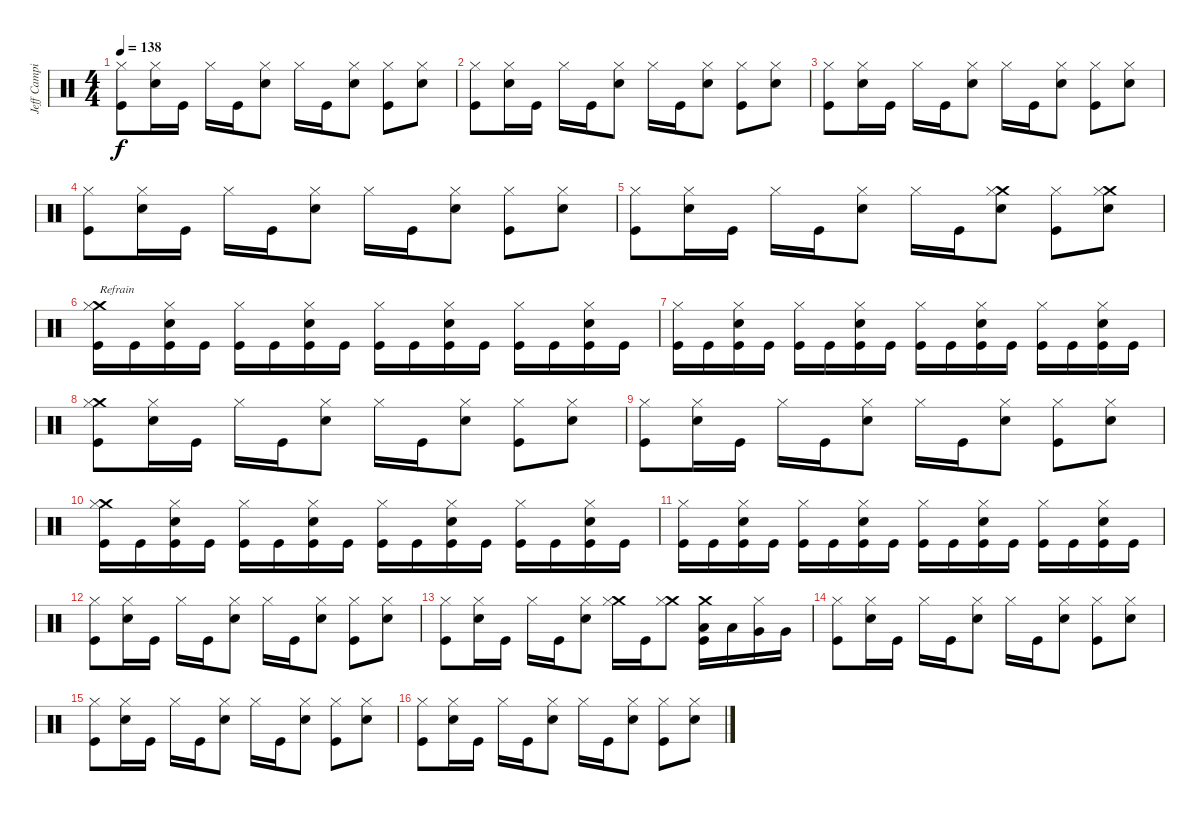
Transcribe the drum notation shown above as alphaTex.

\track ("Jeff Campitelli" "Jeff Campi") {instrument percussion}
\staff {score}
\articulation defaults
\ts (4 4)
\tempo 138
\clef neutral
\ks c
("Hi-Hat (closed)" "Kick (hit)").8{dy f} ("Electric Snare (hit)" "Hi-Hat (closed)").16 "Kick (hit)".16 "Hi-Hat (closed)".16 "Kick (hit)".16 ("Electric Snare (hit)" "Hi-Hat (closed)").8 "Hi-Hat (closed)".16 "Kick (hit)".16 ("Electric Snare (hit)" "Hi-Hat (closed)").8 ("Hi-Hat (closed)" "Kick (hit)").8 ("Electric Snare (hit)" "Hi-Hat (closed)").8 |
("Hi-Hat (closed)" "Kick (hit)").8 ("Electric Snare (hit)" "Hi-Hat (closed)").16 "Kick (hit)".16 "Hi-Hat (closed)".16 "Kick (hit)".16 ("Electric Snare (hit)" "Hi-Hat (closed)").8 "Hi-Hat (closed)".16 "Kick (hit)".16 ("Electric Snare (hit)" "Hi-Hat (closed)").8 ("Hi-Hat (closed)" "Kick (hit)").8 ("Electric Snare (hit)" "Hi-Hat (closed)").8 |
("Hi-Hat (closed)" "Kick (hit)").8 ("Electric Snare (hit)" "Hi-Hat (closed)").16 "Kick (hit)".16 "Hi-Hat (closed)".16 "Kick (hit)".16 ("Electric Snare (hit)" "Hi-Hat (closed)").8 "Hi-Hat (closed)".16 "Kick (hit)".16 ("Electric Snare (hit)" "Hi-Hat (closed)").8 ("Hi-Hat (closed)" "Kick (hit)").8 ("Electric Snare (hit)" "Hi-Hat (closed)").8 |
("Hi-Hat (closed)" "Kick (hit)").8 ("Electric Snare (hit)" "Hi-Hat (closed)").16 "Kick (hit)".16 "Hi-Hat (closed)".16 "Kick (hit)".16 ("Electric Snare (hit)" "Hi-Hat (closed)").8 "Hi-Hat (closed)".16 "Kick (hit)".16 ("Electric Snare (hit)" "Hi-Hat (closed)").8 ("Hi-Hat (closed)" "Kick (hit)").8 ("Electric Snare (hit)" "Hi-Hat (closed)").8 |
("Hi-Hat (closed)" "Kick (hit)").8 ("Electric Snare (hit)" "Hi-Hat (closed)").16 "Kick (hit)".16 "Hi-Hat (closed)".16 "Kick (hit)".16 ("Electric Snare (hit)" "Hi-Hat (closed)").8 "Hi-Hat (closed)".16 "Kick (hit)".16 ("Crash medium (hit)" "Electric Snare (hit)" "Hi-Hat (closed)").8 ("Hi-Hat (closed)" "Kick (hit)").8 ("Crash medium (hit)" "Electric Snare (hit)" "Hi-Hat (closed)").8 |
("Crash medium (hit)" "Hi-Hat (closed)" "Kick (hit)").16{txt "Refrain"} "Kick (hit)".16 ("Electric Snare (hit)" "Hi-Hat (closed)" "Kick (hit)").16 "Kick (hit)".16 ("Hi-Hat (closed)" "Kick (hit)").16 "Kick (hit)".16 ("Electric Snare (hit)" "Hi-Hat (closed)" "Kick (hit)").16 "Kick (hit)".16 ("Hi-Hat (closed)" "Kick (hit)").16 "Kick (hit)".16 ("Electric Snare (hit)" "Hi-Hat (closed)" "Kick (hit)").16 "Kick (hit)".16 ("Hi-Hat (closed)" "Kick (hit)").16 "Kick (hit)".16 ("Electric Snare (hit)" "Hi-Hat (closed)" "Kick (hit)").16 "Kick (hit)".16 |
("Hi-Hat (closed)" "Kick (hit)").16 "Kick (hit)".16 ("Electric Snare (hit)" "Hi-Hat (closed)" "Kick (hit)").16 "Kick (hit)".16 ("Hi-Hat (closed)" "Kick (hit)").16 "Kick (hit)".16 ("Electric Snare (hit)" "Hi-Hat (closed)" "Kick (hit)").16 "Kick (hit)".16 ("Hi-Hat (closed)" "Kick (hit)").16 "Kick (hit)".16 ("Electric Snare (hit)" "Hi-Hat (closed)" "Kick (hit)").16 "Kick (hit)".16 ("Hi-Hat (closed)" "Kick (hit)").16 "Kick (hit)".16 ("Electric Snare (hit)" "Hi-Hat (closed)" "Kick (hit)").16 "Kick (hit)".16 |
("Crash medium (hit)" "Hi-Hat (closed)" "Kick (hit)").8 ("Electric Snare (hit)" "Hi-Hat (closed)").16 "Kick (hit)".16 "Hi-Hat (closed)".16 "Kick (hit)".16 ("Electric Snare (hit)" "Hi-Hat (closed)").8 "Hi-Hat (closed)".16 "Kick (hit)".16 ("Electric Snare (hit)" "Hi-Hat (closed)").8 ("Hi-Hat (closed)" "Kick (hit)").8 ("Electric Snare (hit)" "Hi-Hat (closed)").8 |
("Hi-Hat (closed)" "Kick (hit)").8 ("Electric Snare (hit)" "Hi-Hat (closed)").16 "Kick (hit)".16 "Hi-Hat (closed)".16 "Kick (hit)".16 ("Electric Snare (hit)" "Hi-Hat (closed)").8 "Hi-Hat (closed)".16 "Kick (hit)".16 ("Electric Snare (hit)" "Hi-Hat (closed)").8 ("Hi-Hat (closed)" "Kick (hit)").8 ("Electric Snare (hit)" "Hi-Hat (closed)").8 |
("Crash medium (hit)" "Hi-Hat (closed)" "Kick (hit)").16 "Kick (hit)".16 ("Electric Snare (hit)" "Hi-Hat (closed)" "Kick (hit)").16 "Kick (hit)".16 ("Hi-Hat (closed)" "Kick (hit)").16 "Kick (hit)".16 ("Electric Snare (hit)" "Hi-Hat (closed)" "Kick (hit)").16 "Kick (hit)".16 ("Hi-Hat (closed)" "Kick (hit)").16 "Kick (hit)".16 ("Electric Snare (hit)" "Hi-Hat (closed)" "Kick (hit)").16 "Kick (hit)".16 ("Hi-Hat (closed)" "Kick (hit)").16 "Kick (hit)".16 ("Electric Snare (hit)" "Hi-Hat (closed)" "Kick (hit)").16 "Kick (hit)".16 |
("Hi-Hat (closed)" "Kick (hit)").16 "Kick (hit)".16 ("Electric Snare (hit)" "Hi-Hat (closed)" "Kick (hit)").16 "Kick (hit)".16 ("Hi-Hat (closed)" "Kick (hit)").16 "Kick (hit)".16 ("Electric Snare (hit)" "Hi-Hat (closed)" "Kick (hit)").16 "Kick (hit)".16 ("Hi-Hat (closed)" "Kick (hit)").16 "Kick (hit)".16 ("Electric Snare (hit)" "Hi-Hat (closed)" "Kick (hit)").16 "Kick (hit)".16 ("Hi-Hat (closed)" "Kick (hit)").16 "Kick (hit)".16 ("Electric Snare (hit)" "Hi-Hat (closed)" "Kick (hit)").16 "Kick (hit)".16 |
("Hi-Hat (closed)" "Kick (hit)").8 ("Electric Snare (hit)" "Hi-Hat (closed)").16 "Kick (hit)".16 "Hi-Hat (closed)".16 "Kick (hit)".16 ("Electric Snare (hit)" "Hi-Hat (closed)").8 "Hi-Hat (closed)".16 "Kick (hit)".16 ("Electric Snare (hit)" "Hi-Hat (closed)").8 ("Hi-Hat (closed)" "Kick (hit)").8 ("Electric Snare (hit)" "Hi-Hat (closed)").8 |
("Hi-Hat (closed)" "Kick (hit)").8 ("Electric Snare (hit)" "Hi-Hat (closed)").16 "Kick (hit)".16 "Hi-Hat (closed)".16 "Kick (hit)".16 ("Electric Snare (hit)" "Hi-Hat (closed)").8 ("Crash medium (hit)" "Hi-Hat (closed)").16 "Kick (hit)".16 ("Crash medium (hit)" "Hi-Hat (closed)").8 ("Crash medium (hit)" "Low Tom (hit)" "Kick (hit)").16 "Low Tom (hit)".16 ("Very Low Tom (hit)" "Hi-Hat (closed)").16 "Very Low Tom (hit)".16 |
("Hi-Hat (closed)" "Kick (hit)").8 ("Electric Snare (hit)" "Hi-Hat (closed)").16 "Kick (hit)".16 "Hi-Hat (closed)".16 "Kick (hit)".16 ("Electric Snare (hit)" "Hi-Hat (closed)").8 "Hi-Hat (closed)".16 "Kick (hit)".16 ("Electric Snare (hit)" "Hi-Hat (closed)").8 ("Hi-Hat (closed)" "Kick (hit)").8 ("Electric Snare (hit)" "Hi-Hat (closed)").8 |
("Hi-Hat (closed)" "Kick (hit)").8 ("Electric Snare (hit)" "Hi-Hat (closed)").16 "Kick (hit)".16 "Hi-Hat (closed)".16 "Kick (hit)".16 ("Electric Snare (hit)" "Hi-Hat (closed)").8 "Hi-Hat (closed)".16 "Kick (hit)".16 ("Electric Snare (hit)" "Hi-Hat (closed)").8 ("Hi-Hat (closed)" "Kick (hit)").8 ("Electric Snare (hit)" "Hi-Hat (closed)").8 |
("Hi-Hat (closed)" "Kick (hit)").8 ("Electric Snare (hit)" "Hi-Hat (closed)").16 "Kick (hit)".16 "Hi-Hat (closed)".16 "Kick (hit)".16 ("Electric Snare (hit)" "Hi-Hat (closed)").8 "Hi-Hat (closed)".16 "Kick (hit)".16 ("Electric Snare (hit)" "Hi-Hat (closed)").8 ("Hi-Hat (closed)" "Kick (hit)").8 ("Electric Snare (hit)" "Hi-Hat (closed)").8
